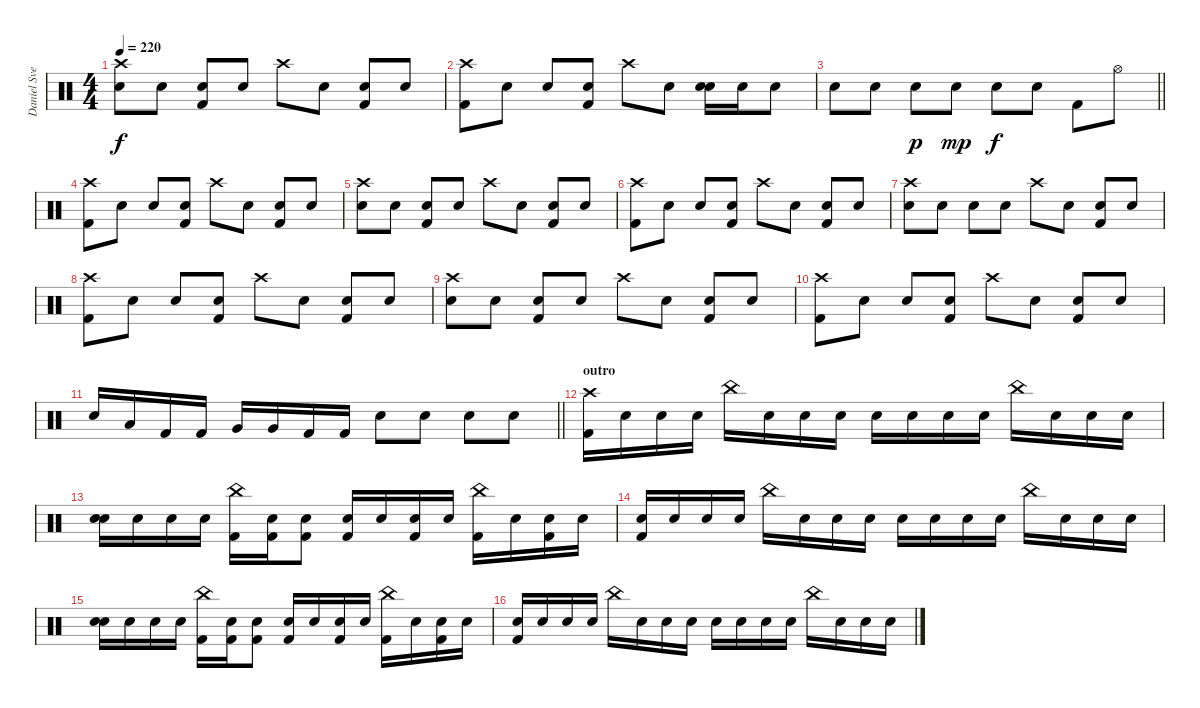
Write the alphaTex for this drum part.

\track ("Daniel Svensson" "Daniel Sve") {instrument percussion}
\staff {score}
\articulation defaults
\ts (4 4)
\tempo 220
\clef neutral
\ks c
("Crash high (hit)" "Electric Snare (hit)").8{dy f} "Snare (hit)".8 ("Snare (hit)" "Kick (hit) 2").8 "Snare (hit)".8 "Crash high (hit)".8 "Snare (hit)".8 ("Snare (hit)" "Kick (hit) 2").8 "Snare (hit)".8 |
("Crash high (hit)" "Kick (hit) 2").8 "Snare (hit)".8 "Snare (hit)".8 ("Snare (hit)" "Kick (hit) 2").8 "Crash high (hit)".8 "Snare (hit)".8 ("Snare (hit)" "Electric Snare (hit)").16 "Electric Snare (hit)".16 "Electric Snare (hit)".8 |
\barLineRight lightlight "Electric Snare (hit)".8 "Electric Snare (hit)".8 "Electric Snare (hit)".8{dy p} "Electric Snare (hit)".8{dy mp} "Electric Snare (hit)".8{dy f} "Electric Snare (hit)".8 "Kick (hit) 2".8 "Hi-Hat (open)".8
|
("Crash high (hit)" "Kick (hit) 2").8 "Snare (hit)".8 "Snare (hit)".8 ("Snare (hit)" "Kick (hit) 2").8 "Crash high (hit)".8 "Snare (hit)".8 ("Snare (hit)" "Kick (hit) 2").8 "Snare (hit)".8 |
("Crash high (hit)" "Electric Snare (hit)").8 "Snare (hit)".8 ("Snare (hit)" "Kick (hit) 2").8 "Snare (hit)".8 "Crash high (hit)".8 "Snare (hit)".8 ("Snare (hit)" "Kick (hit) 2").8 "Snare (hit)".8 |
("Crash high (hit)" "Kick (hit) 2").8 "Snare (hit)".8 "Snare (hit)".8 ("Snare (hit)" "Kick (hit) 2").8 "Crash high (hit)".8 "Snare (hit)".8 ("Snare (hit)" "Kick (hit) 2").8 "Snare (hit)".8 |
("Crash high (hit)" "Electric Snare (hit)").8 "Snare (hit)".8 "Snare (hit)".8 "Snare (hit)".8 "Crash high (hit)".8 "Snare (hit)".8 ("Snare (hit)" "Kick (hit) 2").8 "Snare (hit)".8 |
("Crash high (hit)" "Kick (hit) 2").8 "Snare (hit)".8 "Snare (hit)".8 ("Snare (hit)" "Kick (hit) 2").8 "Crash high (hit)".8 "Snare (hit)".8 ("Snare (hit)" "Kick (hit) 2").8 "Snare (hit)".8 |
("Crash high (hit)" "Electric Snare (hit)").8 "Snare (hit)".8 ("Snare (hit)" "Kick (hit) 2").8 "Snare (hit)".8 "Crash high (hit)".8 "Snare (hit)".8 ("Snare (hit)" "Kick (hit) 2").8 "Snare (hit)".8 |
("Crash high (hit)" "Kick (hit) 2").8 "Snare (hit)".8 "Snare (hit)".8 ("Snare (hit)" "Kick (hit) 2").8 "Crash high (hit)".8 "Snare (hit)".8 ("Snare (hit)" "Kick (hit) 2").8 "Snare (hit)".8 |
\barLineRight lightlight "Electric Snare (hit)".16 "Low Tom (hit)".16 "Kick (hit) 2".16 "Kick (hit) 2".16 "Very Low Tom (hit)".16 "Very Low Tom (hit)".16 "Kick (hit) 2".16 "Kick (hit) 2".16 "Electric Snare (hit)".8 "Electric Snare (hit)".8 "Electric Snare (hit)".8 "Electric Snare (hit)".8
|
\section ("" "outro")
("Crash high (hit)" "Kick (hit) 2").16 "Snare (hit)".16 "Snare (hit)".16 "Snare (hit)".16 "China (hit)".16 "Snare (hit)".16 "Snare (hit)".16 "Snare (hit)".16 "Snare (hit)".16 "Snare (hit)".16 "Snare (hit)".16 "Snare (hit)".16 "China (hit)".16 "Snare (hit)".16 "Snare (hit)".16 "Snare (hit)".16 |
("Snare (hit)" "Electric Snare (hit)").16 "Snare (hit)".16 "Snare (hit)".16 "Snare (hit)".16 ("China (hit)" "Kick (hit) 2").16 ("Snare (hit)" "Kick (hit) 2").16 ("Snare (hit)" "Kick (hit) 2").8 ("Snare (hit)" "Kick (hit) 2").16 "Snare (hit)".16 ("Snare (hit)" "Kick (hit) 2").16 "Snare (hit)".16 ("China (hit)" "Kick (hit) 2").16 "Snare (hit)".16 ("Snare (hit)" "Kick (hit) 2").16 "Snare (hit)".16 |
("Snare (hit)" "Kick (hit) 2").16 "Snare (hit)".16 "Snare (hit)".16 "Snare (hit)".16 "China (hit)".16 "Snare (hit)".16 "Snare (hit)".16 "Snare (hit)".16 "Snare (hit)".16 "Snare (hit)".16 "Snare (hit)".16 "Snare (hit)".16 "China (hit)".16 "Snare (hit)".16 "Snare (hit)".16 "Snare (hit)".16 |
("Snare (hit)" "Electric Snare (hit)").16 "Snare (hit)".16 "Snare (hit)".16 "Snare (hit)".16 ("China (hit)" "Kick (hit) 2").16 ("Snare (hit)" "Kick (hit) 2").16 ("Snare (hit)" "Kick (hit) 2").8 ("Snare (hit)" "Kick (hit) 2").16 "Snare (hit)".16 ("Snare (hit)" "Kick (hit) 2").16 "Snare (hit)".16 ("China (hit)" "Kick (hit) 2").16 "Snare (hit)".16 ("Snare (hit)" "Kick (hit) 2").16 "Snare (hit)".16 |
("Snare (hit)" "Kick (hit) 2").16 "Snare (hit)".16 "Snare (hit)".16 "Snare (hit)".16 "China (hit)".16 "Snare (hit)".16 "Snare (hit)".16 "Snare (hit)".16 "Snare (hit)".16 "Snare (hit)".16 "Snare (hit)".16 "Snare (hit)".16 "China (hit)".16 "Snare (hit)".16 "Snare (hit)".16 "Snare (hit)".16
